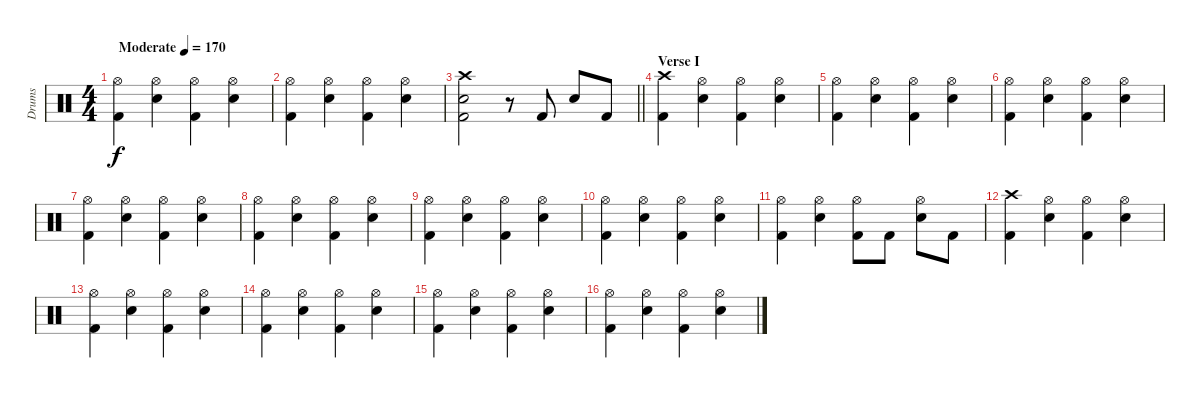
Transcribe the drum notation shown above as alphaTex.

\track ("Drums" "Drums") {instrument percussion}
\staff {score}
\articulation defaults
\ts (4 4)
\tempo (170 "Moderate")
\clef neutral
\ks c
("Hi-Hat (open)" "Kick (hit) 2").4{dy f} ("Hi-Hat (open)" "Snare (hit) 2").4 ("Hi-Hat (open)" "Kick (hit) 2").4 ("Hi-Hat (open)" "Snare (hit) 2").4 |
("Hi-Hat (open)" "Kick (hit) 2").4 ("Hi-Hat (open)" "Snare (hit) 2").4 ("Hi-Hat (open)" "Kick (hit) 2").4 ("Hi-Hat (open)" "Snare (hit) 2").4 |
\barLineRight lightlight
("Crash high (hit)" "Snare (hit) 2" "Kick (hit) 2").2 r.8 "Kick (hit) 2".8 "Snare (hit) 2".8 "Kick (hit) 2".8 |
\section ("" "Verse I")
("Crash high (hit)" "Kick (hit) 2").4 ("Hi-Hat (open)" "Snare (hit) 2").4 ("Hi-Hat (open)" "Kick (hit) 2").4 ("Hi-Hat (open)" "Snare (hit) 2").4 |
("Hi-Hat (open)" "Kick (hit) 2").4 ("Hi-Hat (open)" "Snare (hit) 2").4 ("Hi-Hat (open)" "Kick (hit) 2").4 ("Hi-Hat (open)" "Snare (hit) 2").4 |
("Hi-Hat (open)" "Kick (hit) 2").4 ("Hi-Hat (open)" "Snare (hit) 2").4 ("Hi-Hat (open)" "Kick (hit) 2").4 ("Hi-Hat (open)" "Snare (hit) 2").4 |
("Hi-Hat (open)" "Kick (hit) 2").4 ("Hi-Hat (open)" "Snare (hit) 2").4 ("Hi-Hat (open)" "Kick (hit) 2").4 ("Hi-Hat (open)" "Snare (hit) 2").4 |
("Hi-Hat (open)" "Kick (hit) 2").4 ("Hi-Hat (open)" "Snare (hit) 2").4 ("Hi-Hat (open)" "Kick (hit) 2").4 ("Hi-Hat (open)" "Snare (hit) 2").4 |
("Hi-Hat (open)" "Kick (hit) 2").4 ("Hi-Hat (open)" "Snare (hit) 2").4 ("Hi-Hat (open)" "Kick (hit) 2").4 ("Hi-Hat (open)" "Snare (hit) 2").4 |
("Hi-Hat (open)" "Kick (hit) 2").4 ("Hi-Hat (open)" "Snare (hit) 2").4 ("Hi-Hat (open)" "Kick (hit) 2").4 ("Hi-Hat (open)" "Snare (hit) 2").4 |
("Hi-Hat (open)" "Kick (hit) 2").4 ("Hi-Hat (open)" "Snare (hit) 2").4 ("Hi-Hat (open)" "Kick (hit) 2").8 "Kick (hit) 2".8 ("Hi-Hat (open)" "Snare (hit) 2").8 "Kick (hit) 2".8 |
("Crash high (hit)" "Kick (hit) 2").4 ("Hi-Hat (open)" "Snare (hit) 2").4 ("Hi-Hat (open)" "Kick (hit) 2").4 ("Hi-Hat (open)" "Snare (hit) 2").4 |
("Hi-Hat (open)" "Kick (hit) 2").4 ("Hi-Hat (open)" "Snare (hit) 2").4 ("Hi-Hat (open)" "Kick (hit) 2").4 ("Hi-Hat (open)" "Snare (hit) 2").4 |
("Hi-Hat (open)" "Kick (hit) 2").4 ("Hi-Hat (open)" "Snare (hit) 2").4 ("Hi-Hat (open)" "Kick (hit) 2").4 ("Hi-Hat (open)" "Snare (hit) 2").4 |
("Hi-Hat (open)" "Kick (hit) 2").4 ("Hi-Hat (open)" "Snare (hit) 2").4 ("Hi-Hat (open)" "Kick (hit) 2").4 ("Hi-Hat (open)" "Snare (hit) 2").4 |
("Hi-Hat (open)" "Kick (hit) 2").4 ("Hi-Hat (open)" "Snare (hit) 2").4 ("Hi-Hat (open)" "Kick (hit) 2").4 ("Hi-Hat (open)" "Snare (hit) 2").4
